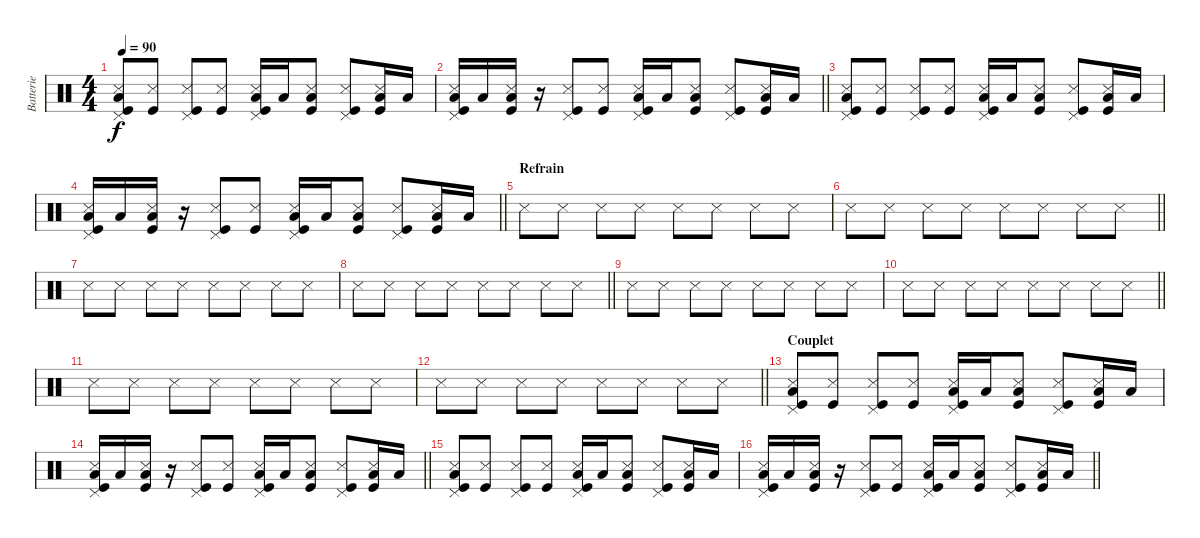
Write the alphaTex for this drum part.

\track ("Batterie" "Batterie") {instrument percussion}
\staff {score}
\articulation defaults
\ts (4 4)
\tempo 90
\clef neutral
\ks c
("Snare (side stick) 3" "Pedal Hi-Hat (hit)" "Low Floor Tom (hit)" "Kick (hit)").8{dy f} ("Snare (side stick) 3" "Kick (hit)").8 ("Snare (side stick) 3" "Pedal Hi-Hat (hit)" "Kick (hit)").8 ("Snare (side stick) 3" "Kick (hit)").8 ("Snare (side stick) 3" "Pedal Hi-Hat (hit)" "Low Floor Tom (hit)" "Kick (hit)").16 "Low Floor Tom (hit)".16 ("Snare (side stick) 3" "Low Floor Tom (hit)" "Kick (hit)").8 ("Snare (side stick) 3" "Pedal Hi-Hat (hit)" "Kick (hit)").8 ("Snare (side stick) 3" "Low Floor Tom (hit)" "Kick (hit)").16 "Low Floor Tom (hit)".16 |
\barLineRight lightlight
("Snare (side stick) 3" "Pedal Hi-Hat (hit)" "Low Floor Tom (hit)" "Kick (hit)").16 "Low Floor Tom (hit)".16 ("Snare (side stick) 3" "Low Floor Tom (hit)" "Kick (hit)").16 r.16 ("Snare (side stick) 3" "Pedal Hi-Hat (hit)" "Kick (hit)").8 ("Snare (side stick) 3" "Kick (hit)").8 ("Snare (side stick) 3" "Pedal Hi-Hat (hit)" "Low Floor Tom (hit)" "Kick (hit)").16 "Low Floor Tom (hit)".16 ("Snare (side stick) 3" "Low Floor Tom (hit)" "Kick (hit)").8 ("Snare (side stick) 3" "Pedal Hi-Hat (hit)" "Kick (hit)").8 ("Snare (side stick) 3" "Low Floor Tom (hit)" "Kick (hit)").16 "Low Floor Tom (hit)".16 |
("Snare (side stick) 3" "Pedal Hi-Hat (hit)" "Low Floor Tom (hit)" "Kick (hit)").8 ("Snare (side stick) 3" "Kick (hit)").8 ("Snare (side stick) 3" "Pedal Hi-Hat (hit)" "Kick (hit)").8 ("Snare (side stick) 3" "Kick (hit)").8 ("Snare (side stick) 3" "Pedal Hi-Hat (hit)" "Low Floor Tom (hit)" "Kick (hit)").16 "Low Floor Tom (hit)".16 ("Snare (side stick) 3" "Low Floor Tom (hit)" "Kick (hit)").8 ("Snare (side stick) 3" "Pedal Hi-Hat (hit)" "Kick (hit)").8 ("Snare (side stick) 3" "Low Floor Tom (hit)" "Kick (hit)").16 "Low Floor Tom (hit)".16 |
\barLineRight lightlight
("Snare (side stick) 3" "Pedal Hi-Hat (hit)" "Low Floor Tom (hit)" "Kick (hit)").16 "Low Floor Tom (hit)".16 ("Snare (side stick) 3" "Low Floor Tom (hit)" "Kick (hit)").16 r.16 ("Snare (side stick) 3" "Pedal Hi-Hat (hit)" "Kick (hit)").8 ("Snare (side stick) 3" "Kick (hit)").8 ("Snare (side stick) 3" "Pedal Hi-Hat (hit)" "Low Floor Tom (hit)" "Kick (hit)").16 "Low Floor Tom (hit)".16 ("Snare (side stick) 3" "Low Floor Tom (hit)" "Kick (hit)").8 ("Snare (side stick) 3" "Pedal Hi-Hat (hit)" "Kick (hit)").8 ("Snare (side stick) 3" "Low Floor Tom (hit)" "Kick (hit)").16 "Low Floor Tom (hit)".16 |
\section ("" "Refrain")
"Snare (side stick) 3".8 "Snare (side stick) 3".8 "Snare (side stick) 3".8 "Snare (side stick) 3".8 "Snare (side stick) 3".8 "Snare (side stick) 3".8 "Snare (side stick) 3".8 "Snare (side stick) 3".8 |
\barLineRight lightlight "Snare (side stick) 3".8 "Snare (side stick) 3".8 "Snare (side stick) 3".8 "Snare (side stick) 3".8 "Snare (side stick) 3".8 "Snare (side stick) 3".8 "Snare (side stick) 3".8 "Snare (side stick) 3".8
|
"Snare (side stick) 3".8 "Snare (side stick) 3".8 "Snare (side stick) 3".8 "Snare (side stick) 3".8 "Snare (side stick) 3".8 "Snare (side stick) 3".8 "Snare (side stick) 3".8 "Snare (side stick) 3".8 |
\barLineRight lightlight "Snare (side stick) 3".8 "Snare (side stick) 3".8 "Snare (side stick) 3".8 "Snare (side stick) 3".8 "Snare (side stick) 3".8 "Snare (side stick) 3".8 "Snare (side stick) 3".8 "Snare (side stick) 3".8
|
"Snare (side stick) 3".8 "Snare (side stick) 3".8 "Snare (side stick) 3".8 "Snare (side stick) 3".8 "Snare (side stick) 3".8 "Snare (side stick) 3".8 "Snare (side stick) 3".8 "Snare (side stick) 3".8 |
\barLineRight lightlight "Snare (side stick) 3".8 "Snare (side stick) 3".8 "Snare (side stick) 3".8 "Snare (side stick) 3".8 "Snare (side stick) 3".8 "Snare (side stick) 3".8 "Snare (side stick) 3".8 "Snare (side stick) 3".8
|
"Snare (side stick) 3".8 "Snare (side stick) 3".8 "Snare (side stick) 3".8 "Snare (side stick) 3".8 "Snare (side stick) 3".8 "Snare (side stick) 3".8 "Snare (side stick) 3".8 "Snare (side stick) 3".8 |
\barLineRight lightlight "Snare (side stick) 3".8 "Snare (side stick) 3".8 "Snare (side stick) 3".8 "Snare (side stick) 3".8 "Snare (side stick) 3".8 "Snare (side stick) 3".8 "Snare (side stick) 3".8 "Snare (side stick) 3".8
|
\section ("" "Couplet")
("Snare (side stick) 3" "Pedal Hi-Hat (hit)" "Low Floor Tom (hit)" "Kick (hit)").8 ("Snare (side stick) 3" "Kick (hit)").8 ("Snare (side stick) 3" "Pedal Hi-Hat (hit)" "Kick (hit)").8 ("Snare (side stick) 3" "Kick (hit)").8 ("Snare (side stick) 3" "Pedal Hi-Hat (hit)" "Low Floor Tom (hit)" "Kick (hit)").16 "Low Floor Tom (hit)".16 ("Snare (side stick) 3" "Low Floor Tom (hit)" "Kick (hit)").8 ("Snare (side stick) 3" "Pedal Hi-Hat (hit)" "Kick (hit)").8 ("Snare (side stick) 3" "Low Floor Tom (hit)" "Kick (hit)").16 "Low Floor Tom (hit)".16 |
\barLineRight lightlight
("Snare (side stick) 3" "Pedal Hi-Hat (hit)" "Low Floor Tom (hit)" "Kick (hit)").16 "Low Floor Tom (hit)".16 ("Snare (side stick) 3" "Low Floor Tom (hit)" "Kick (hit)").16 r.16 ("Snare (side stick) 3" "Pedal Hi-Hat (hit)" "Kick (hit)").8 ("Snare (side stick) 3" "Kick (hit)").8 ("Snare (side stick) 3" "Pedal Hi-Hat (hit)" "Low Floor Tom (hit)" "Kick (hit)").16 "Low Floor Tom (hit)".16 ("Snare (side stick) 3" "Low Floor Tom (hit)" "Kick (hit)").8 ("Snare (side stick) 3" "Pedal Hi-Hat (hit)" "Kick (hit)").8 ("Snare (side stick) 3" "Low Floor Tom (hit)" "Kick (hit)").16 "Low Floor Tom (hit)".16 |
("Snare (side stick) 3" "Pedal Hi-Hat (hit)" "Low Floor Tom (hit)" "Kick (hit)").8 ("Snare (side stick) 3" "Kick (hit)").8 ("Snare (side stick) 3" "Pedal Hi-Hat (hit)" "Kick (hit)").8 ("Snare (side stick) 3" "Kick (hit)").8 ("Snare (side stick) 3" "Pedal Hi-Hat (hit)" "Low Floor Tom (hit)" "Kick (hit)").16 "Low Floor Tom (hit)".16 ("Snare (side stick) 3" "Low Floor Tom (hit)" "Kick (hit)").8 ("Snare (side stick) 3" "Pedal Hi-Hat (hit)" "Kick (hit)").8 ("Snare (side stick) 3" "Low Floor Tom (hit)" "Kick (hit)").16 "Low Floor Tom (hit)".16 |
\barLineRight lightlight
("Snare (side stick) 3" "Pedal Hi-Hat (hit)" "Low Floor Tom (hit)" "Kick (hit)").16 "Low Floor Tom (hit)".16 ("Snare (side stick) 3" "Low Floor Tom (hit)" "Kick (hit)").16 r.16 ("Snare (side stick) 3" "Pedal Hi-Hat (hit)" "Kick (hit)").8 ("Snare (side stick) 3" "Kick (hit)").8 ("Snare (side stick) 3" "Pedal Hi-Hat (hit)" "Low Floor Tom (hit)" "Kick (hit)").16 "Low Floor Tom (hit)".16 ("Snare (side stick) 3" "Low Floor Tom (hit)" "Kick (hit)").8 ("Snare (side stick) 3" "Pedal Hi-Hat (hit)" "Kick (hit)").8 ("Snare (side stick) 3" "Low Floor Tom (hit)" "Kick (hit)").16 "Low Floor Tom (hit)".16
